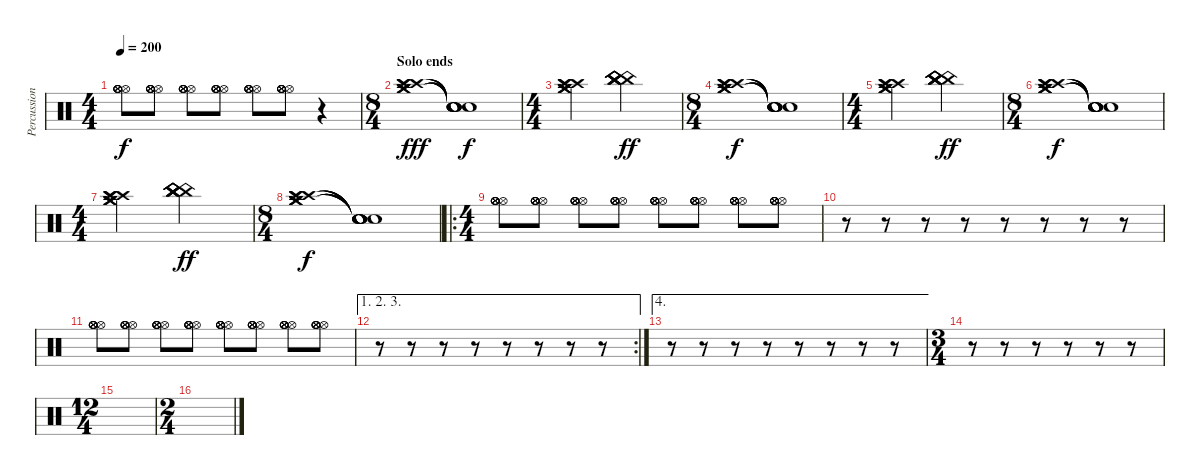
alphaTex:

\track ("Percussion" "Percussion") {instrument percussion}
\staff {score}
\articulation defaults
\ts (4 4)
\tempo 200
\clef neutral
\ks c
("Hi-Hat (open)" "Hi-Hat (open)" "Hi-Hat (open)" "Hi-Hat (open)" "Hi-Hat (open)" "Hi-Hat (open)").8{dy f} ("Hi-Hat (open)" "Hi-Hat (open)" "Hi-Hat (open)" "Hi-Hat (open)" "Hi-Hat (open)" "Hi-Hat (open)").8 ("Hi-Hat (open)" "Hi-Hat (open)" "Hi-Hat (open)" "Hi-Hat (open)" "Hi-Hat (open)" "Hi-Hat (open)").8 ("Hi-Hat (open)" "Hi-Hat (open)" "Hi-Hat (open)" "Hi-Hat (open)" "Hi-Hat (open)" "Hi-Hat (open)").8 ("Hi-Hat (open)" "Hi-Hat (open)" "Hi-Hat (open)" "Hi-Hat (open)" "Hi-Hat (open)" "Hi-Hat (open)").8 ("Hi-Hat (open)" "Hi-Hat (open)" "Hi-Hat (open)" "Hi-Hat (open)" "Hi-Hat (open)" "Hi-Hat (open)").8 r.4 |
\ts (8 4)
\section ("" "Solo ends")
("Crash high (hit)" "Crash high (hit)" "Crash high (hit)" "Crash medium (hit)" "Crash medium (hit)" "Crash medium (hit)").1{dy fff} ("Snare (hit)"{t} "Snare (hit)"{t} "Snare (hit)"{t} "Snare (hit)"{t} "Snare (hit)"{t} "Snare (hit)"{t}).1{dy f} |
\ts (4 4)
("Crash high (hit)" "Crash high (hit)" "Crash high (hit)" "Crash medium (hit)" "Crash medium (hit)" "Crash medium (hit)").2 ("China (hit)" "China (hit)" "China (hit)" "China (hit)" "China (hit)" "China (hit)").2{dy ff} |
\ts (8 4)
("Crash high (hit)" "Crash high (hit)" "Crash high (hit)" "Crash medium (hit)" "Crash medium (hit)" "Crash medium (hit)").1{dy f} ("Snare (hit)"{t} "Snare (hit)"{t} "Snare (hit)"{t} "Snare (hit)"{t} "Snare (hit)"{t} "Snare (hit)"{t}).1 |
\ts (4 4)
("Crash high (hit)" "Crash high (hit)" "Crash high (hit)" "Crash medium (hit)" "Crash medium (hit)" "Crash medium (hit)").2 ("China (hit)" "China (hit)" "China (hit)" "China (hit)" "China (hit)" "China (hit)").2{dy ff} |
\ts (8 4)
("Crash high (hit)" "Crash high (hit)" "Crash high (hit)" "Crash medium (hit)" "Crash medium (hit)" "Crash medium (hit)").1{dy f} ("Snare (hit)"{t} "Snare (hit)"{t} "Snare (hit)"{t} "Snare (hit)"{t} "Snare (hit)"{t} "Snare (hit)"{t}).1 |
\ts (4 4)
("Crash high (hit)" "Crash high (hit)" "Crash high (hit)" "Crash medium (hit)" "Crash medium (hit)" "Crash medium (hit)").2 ("China (hit)" "China (hit)" "China (hit)" "China (hit)" "China (hit)" "China (hit)").2{dy ff} |
\ts (8 4)
("Crash high (hit)" "Crash high (hit)" "Crash high (hit)" "Crash medium (hit)" "Crash medium (hit)" "Crash medium (hit)").1{dy f} ("Snare (hit)"{t} "Snare (hit)"{t} "Snare (hit)"{t} "Snare (hit)"{t} "Snare (hit)"{t} "Snare (hit)"{t}).1 |
\ro
\ts (4 4)
("Hi-Hat (open)" "Hi-Hat (open)" "Hi-Hat (open)" "Hi-Hat (open)" "Hi-Hat (open)" "Hi-Hat (open)").8 ("Hi-Hat (open)" "Hi-Hat (open)" "Hi-Hat (open)" "Hi-Hat (open)" "Hi-Hat (open)" "Hi-Hat (open)").8 ("Hi-Hat (open)" "Hi-Hat (open)" "Hi-Hat (open)" "Hi-Hat (open)" "Hi-Hat (open)" "Hi-Hat (open)").8 ("Hi-Hat (open)" "Hi-Hat (open)" "Hi-Hat (open)" "Hi-Hat (open)" "Hi-Hat (open)" "Hi-Hat (open)").8 ("Hi-Hat (open)" "Hi-Hat (open)" "Hi-Hat (open)" "Hi-Hat (open)" "Hi-Hat (open)" "Hi-Hat (open)").8 ("Hi-Hat (open)" "Hi-Hat (open)" "Hi-Hat (open)" "Hi-Hat (open)" "Hi-Hat (open)" "Hi-Hat (open)").8 ("Hi-Hat (open)" "Hi-Hat (open)" "Hi-Hat (open)" "Hi-Hat (open)" "Hi-Hat (open)" "Hi-Hat (open)").8 ("Hi-Hat (open)" "Hi-Hat (open)" "Hi-Hat (open)" "Hi-Hat (open)" "Hi-Hat (open)" "Hi-Hat (open)").8 |
r.8 r.8 r.8 r.8 r.8 r.8 r.8 r.8 |
("Hi-Hat (open)" "Hi-Hat (open)" "Hi-Hat (open)" "Hi-Hat (open)" "Hi-Hat (open)" "Hi-Hat (open)").8 ("Hi-Hat (open)" "Hi-Hat (open)" "Hi-Hat (open)" "Hi-Hat (open)" "Hi-Hat (open)" "Hi-Hat (open)").8 ("Hi-Hat (open)" "Hi-Hat (open)" "Hi-Hat (open)" "Hi-Hat (open)" "Hi-Hat (open)" "Hi-Hat (open)").8 ("Hi-Hat (open)" "Hi-Hat (open)" "Hi-Hat (open)" "Hi-Hat (open)" "Hi-Hat (open)" "Hi-Hat (open)").8 ("Hi-Hat (open)" "Hi-Hat (open)" "Hi-Hat (open)" "Hi-Hat (open)" "Hi-Hat (open)" "Hi-Hat (open)").8 ("Hi-Hat (open)" "Hi-Hat (open)" "Hi-Hat (open)" "Hi-Hat (open)" "Hi-Hat (open)" "Hi-Hat (open)").8 ("Hi-Hat (open)" "Hi-Hat (open)" "Hi-Hat (open)" "Hi-Hat (open)" "Hi-Hat (open)" "Hi-Hat (open)").8 ("Hi-Hat (open)" "Hi-Hat (open)" "Hi-Hat (open)" "Hi-Hat (open)" "Hi-Hat (open)" "Hi-Hat (open)").8 |
\ae (1 2 3)
\rc 2
r.8 r.8 r.8 r.8 r.8 r.8 r.8 r.8 |
\ae 4
r.8 r.8 r.8 r.8 r.8 r.8 r.8 r.8 |
\ts (3 4)
r.8 r.8 r.8 r.8 r.8 r.8 |
\ts (12 4)
|
\ts (2 4)
